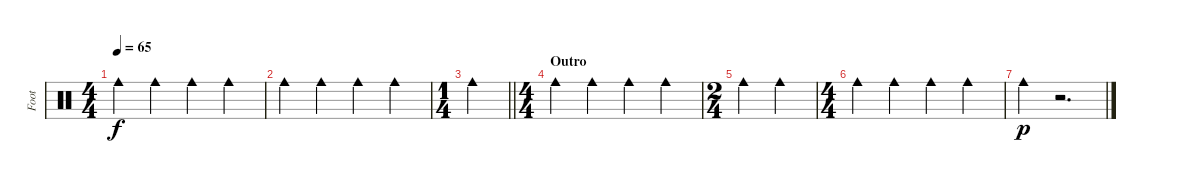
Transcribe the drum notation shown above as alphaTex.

\track ("Foot" "Foot") {instrument percussion}
\staff {score}
\articulation defaults
\ts (4 4)
\tempo 65
\clef neutral
\ks c "Cowbell medium (hit)".4{dy f} "Cowbell medium (hit)".4 "Cowbell medium (hit)".4 "Cowbell medium (hit)".4
|
"Cowbell medium (hit)".4 "Cowbell medium (hit)".4 "Cowbell medium (hit)".4 "Cowbell medium (hit)".4 |
\ts (1 4)
\barLineRight lightlight "Cowbell medium (hit)".4
|
\ts (4 4)
\section ("" "Outro")
"Cowbell medium (hit)".4 "Cowbell medium (hit)".4 "Cowbell medium (hit)".4 "Cowbell medium (hit)".4 |
\ts (2 4)
"Cowbell medium (hit)".4 "Cowbell medium (hit)".4 |
\ts (4 4)
"Cowbell medium (hit)".4 "Cowbell medium (hit)".4 "Cowbell medium (hit)".4 "Cowbell medium (hit)".4 |
"Cowbell medium (hit)".4{dy p} r.2{d}
